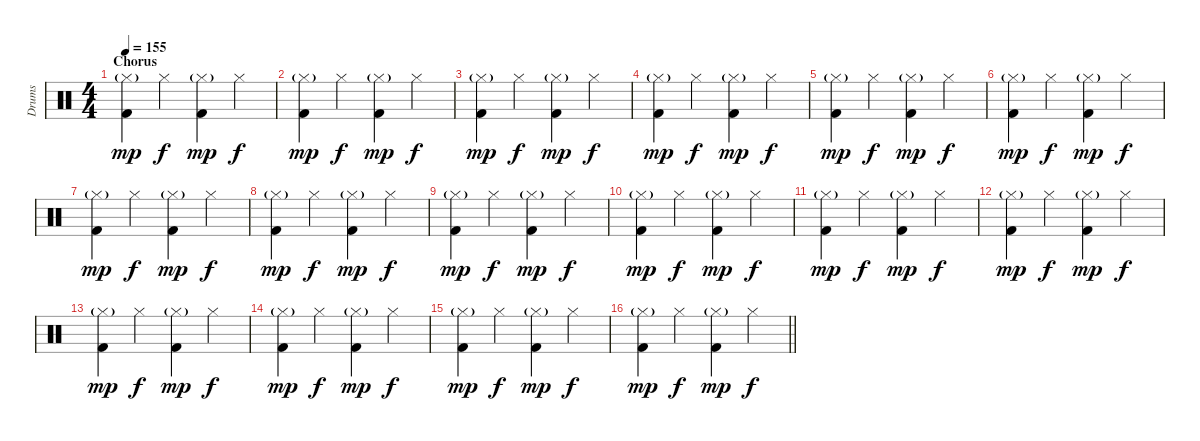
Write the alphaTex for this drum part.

\track ("Drums" "Drums") {instrument percussion}
\staff {score}
\articulation defaults
\ts (4 4)
\section ("" "Chorus")
\tempo 155
\clef neutral
\ks c
("Hi-Hat (closed)"{g} "Kick (hit) 2").4{dy mp} "Hi-Hat (closed)".4{dy f} ("Hi-Hat (closed)"{g} "Kick (hit) 2").4{dy mp} "Hi-Hat (closed)".4{dy f} |
("Hi-Hat (closed)"{g} "Kick (hit) 2").4{dy mp} "Hi-Hat (closed)".4{dy f} ("Hi-Hat (closed)"{g} "Kick (hit) 2").4{dy mp} "Hi-Hat (closed)".4{dy f} |
("Hi-Hat (closed)"{g} "Kick (hit) 2").4{dy mp} "Hi-Hat (closed)".4{dy f} ("Hi-Hat (closed)"{g} "Kick (hit) 2").4{dy mp} "Hi-Hat (closed)".4{dy f} |
("Hi-Hat (closed)"{g} "Kick (hit) 2").4{dy mp} "Hi-Hat (closed)".4{dy f} ("Hi-Hat (closed)"{g} "Kick (hit) 2").4{dy mp} "Hi-Hat (closed)".4{dy f} |
("Hi-Hat (closed)"{g} "Kick (hit) 2").4{dy mp} "Hi-Hat (closed)".4{dy f} ("Hi-Hat (closed)"{g} "Kick (hit) 2").4{dy mp} "Hi-Hat (closed)".4{dy f} |
("Hi-Hat (closed)"{g} "Kick (hit) 2").4{dy mp} "Hi-Hat (closed)".4{dy f} ("Hi-Hat (closed)"{g} "Kick (hit) 2").4{dy mp} "Hi-Hat (closed)".4{dy f} |
("Hi-Hat (closed)"{g} "Kick (hit) 2").4{dy mp} "Hi-Hat (closed)".4{dy f} ("Hi-Hat (closed)"{g} "Kick (hit) 2").4{dy mp} "Hi-Hat (closed)".4{dy f} |
("Hi-Hat (closed)"{g} "Kick (hit) 2").4{dy mp} "Hi-Hat (closed)".4{dy f} ("Hi-Hat (closed)"{g} "Kick (hit) 2").4{dy mp} "Hi-Hat (closed)".4{dy f} |
("Hi-Hat (closed)"{g} "Kick (hit) 2").4{dy mp} "Hi-Hat (closed)".4{dy f} ("Hi-Hat (closed)"{g} "Kick (hit) 2").4{dy mp} "Hi-Hat (closed)".4{dy f} |
("Hi-Hat (closed)"{g} "Kick (hit) 2").4{dy mp} "Hi-Hat (closed)".4{dy f} ("Hi-Hat (closed)"{g} "Kick (hit) 2").4{dy mp} "Hi-Hat (closed)".4{dy f} |
("Hi-Hat (closed)"{g} "Kick (hit) 2").4{dy mp} "Hi-Hat (closed)".4{dy f} ("Hi-Hat (closed)"{g} "Kick (hit) 2").4{dy mp} "Hi-Hat (closed)".4{dy f} |
("Hi-Hat (closed)"{g} "Kick (hit) 2").4{dy mp} "Hi-Hat (closed)".4{dy f} ("Hi-Hat (closed)"{g} "Kick (hit) 2").4{dy mp} "Hi-Hat (closed)".4{dy f} |
("Hi-Hat (closed)"{g} "Kick (hit) 2").4{dy mp} "Hi-Hat (closed)".4{dy f} ("Hi-Hat (closed)"{g} "Kick (hit) 2").4{dy mp} "Hi-Hat (closed)".4{dy f} |
("Hi-Hat (closed)"{g} "Kick (hit) 2").4{dy mp} "Hi-Hat (closed)".4{dy f} ("Hi-Hat (closed)"{g} "Kick (hit) 2").4{dy mp} "Hi-Hat (closed)".4{dy f} |
("Hi-Hat (closed)"{g} "Kick (hit) 2").4{dy mp} "Hi-Hat (closed)".4{dy f} ("Hi-Hat (closed)"{g} "Kick (hit) 2").4{dy mp} "Hi-Hat (closed)".4{dy f} |
\barLineRight lightlight
("Hi-Hat (closed)"{g} "Kick (hit) 2").4{dy mp} "Hi-Hat (closed)".4{dy f} ("Hi-Hat (closed)"{g} "Kick (hit) 2").4{dy mp} "Hi-Hat (closed)".4{dy f}
